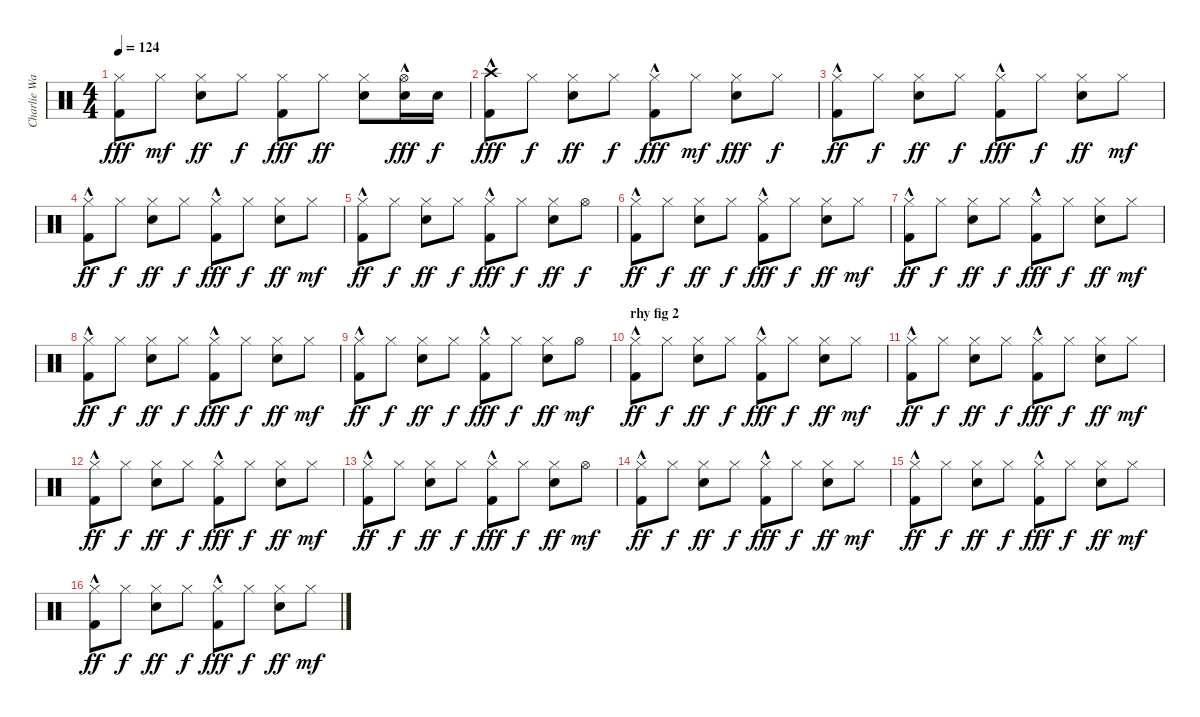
\track ("Charlie Watts" "Charlie Wa") {instrument percussion}
\staff {score}
\articulation defaults
\ts (4 4)
\tempo 124
\clef neutral
\ks c
("Kick (hit) 2" "Hi-Hat (closed)").8{dy fff} "Hi-Hat (closed)".8{dy mf} ("Snare (hit) 2" "Hi-Hat (closed)").8{dy ff} "Hi-Hat (closed)".8{dy f} ("Kick (hit) 2" "Hi-Hat (closed)").8{dy fff} "Hi-Hat (closed)".8{dy ff} ("Snare (hit) 2" "Hi-Hat (closed)").8 ("Hi-Hat (open)"{hac} "Snare (hit) 2").16{dy fff} "Snare (hit) 2".16{dy f} |
("Kick (hit) 2"{hac} "Crash high (hit)"{hac}).8{dy fff} "Hi-Hat (closed)".8{dy f} ("Snare (hit) 2" "Hi-Hat (closed)").8{dy ff} "Hi-Hat (closed)".8{dy f} ("Kick (hit) 2"{hac} "Hi-Hat (closed)").8{dy fff} "Hi-Hat (closed)".8{dy mf} ("Snare (hit) 2" "Hi-Hat (closed)").8{dy fff} "Hi-Hat (closed)".8{dy f} |
("Kick (hit) 2"{hac} "Hi-Hat (closed)").8{dy ff} "Hi-Hat (closed)".8{dy f} ("Snare (hit) 2" "Hi-Hat (closed)").8{dy ff} "Hi-Hat (closed)".8{dy f} ("Kick (hit) 2"{hac} "Hi-Hat (closed)").8{dy fff} "Hi-Hat (closed)".8{dy f} ("Snare (hit) 2" "Hi-Hat (closed)").8{dy ff} "Hi-Hat (closed)".8{dy mf} |
("Kick (hit) 2"{hac} "Hi-Hat (closed)").8{dy ff} "Hi-Hat (closed)".8{dy f} ("Snare (hit) 2" "Hi-Hat (closed)").8{dy ff} "Hi-Hat (closed)".8{dy f} ("Kick (hit) 2"{hac} "Hi-Hat (closed)").8{dy fff} "Hi-Hat (closed)".8{dy f} ("Snare (hit) 2" "Hi-Hat (closed)").8{dy ff} "Hi-Hat (closed)".8{dy mf} |
("Kick (hit) 2"{hac} "Hi-Hat (closed)").8{dy ff} "Hi-Hat (closed)".8{dy f} ("Snare (hit) 2" "Hi-Hat (closed)").8{dy ff} "Hi-Hat (closed)".8{dy f} ("Kick (hit) 2"{hac} "Hi-Hat (closed)").8{dy fff} "Hi-Hat (closed)".8{dy f} ("Snare (hit) 2" "Hi-Hat (closed)").8{dy ff} "Hi-Hat (open)".8{dy f} |
("Kick (hit) 2"{hac} "Hi-Hat (closed)").8{dy ff} "Hi-Hat (closed)".8{dy f} ("Snare (hit) 2" "Hi-Hat (closed)").8{dy ff} "Hi-Hat (closed)".8{dy f} ("Kick (hit) 2"{hac} "Hi-Hat (closed)").8{dy fff} "Hi-Hat (closed)".8{dy f} ("Snare (hit) 2" "Hi-Hat (closed)").8{dy ff} "Hi-Hat (closed)".8{dy mf} |
("Kick (hit) 2"{hac} "Hi-Hat (closed)").8{dy ff} "Hi-Hat (closed)".8{dy f} ("Snare (hit) 2" "Hi-Hat (closed)").8{dy ff} "Hi-Hat (closed)".8{dy f} ("Kick (hit) 2"{hac} "Hi-Hat (closed)").8{dy fff} "Hi-Hat (closed)".8{dy f} ("Snare (hit) 2" "Hi-Hat (closed)").8{dy ff} "Hi-Hat (closed)".8{dy mf} |
("Kick (hit) 2"{hac} "Hi-Hat (closed)").8{dy ff} "Hi-Hat (closed)".8{dy f} ("Snare (hit) 2" "Hi-Hat (closed)").8{dy ff} "Hi-Hat (closed)".8{dy f} ("Kick (hit) 2"{hac} "Hi-Hat (closed)").8{dy fff} "Hi-Hat (closed)".8{dy f} ("Snare (hit) 2" "Hi-Hat (closed)").8{dy ff} "Hi-Hat (closed)".8{dy mf} |
("Kick (hit) 2"{hac} "Hi-Hat (closed)").8{dy ff} "Hi-Hat (closed)".8{dy f} ("Snare (hit) 2" "Hi-Hat (closed)").8{dy ff} "Hi-Hat (closed)".8{dy f} ("Kick (hit) 2"{hac} "Hi-Hat (closed)").8{dy fff} "Hi-Hat (closed)".8{dy f} ("Snare (hit) 2" "Hi-Hat (closed)").8{dy ff} "Hi-Hat (open)".8{dy mf} |
\section ("" "rhy fig 2")
("Kick (hit) 2"{hac} "Hi-Hat (closed)").8{dy ff} "Hi-Hat (closed)".8{dy f} ("Snare (hit) 2" "Hi-Hat (closed)").8{dy ff} "Hi-Hat (closed)".8{dy f} ("Kick (hit) 2"{hac} "Hi-Hat (closed)").8{dy fff} "Hi-Hat (closed)".8{dy f} ("Snare (hit) 2" "Hi-Hat (closed)").8{dy ff} "Hi-Hat (closed)".8{dy mf} |
("Kick (hit) 2"{hac} "Hi-Hat (closed)").8{dy ff} "Hi-Hat (closed)".8{dy f} ("Snare (hit) 2" "Hi-Hat (closed)").8{dy ff} "Hi-Hat (closed)".8{dy f} ("Kick (hit) 2"{hac} "Hi-Hat (closed)").8{dy fff} "Hi-Hat (closed)".8{dy f} ("Snare (hit) 2" "Hi-Hat (closed)").8{dy ff} "Hi-Hat (closed)".8{dy mf} |
("Kick (hit) 2"{hac} "Hi-Hat (closed)").8{dy ff} "Hi-Hat (closed)".8{dy f} ("Snare (hit) 2" "Hi-Hat (closed)").8{dy ff} "Hi-Hat (closed)".8{dy f} ("Kick (hit) 2"{hac} "Hi-Hat (closed)").8{dy fff} "Hi-Hat (closed)".8{dy f} ("Snare (hit) 2" "Hi-Hat (closed)").8{dy ff} "Hi-Hat (closed)".8{dy mf} |
("Kick (hit) 2"{hac} "Hi-Hat (closed)").8{dy ff} "Hi-Hat (closed)".8{dy f} ("Snare (hit) 2" "Hi-Hat (closed)").8{dy ff} "Hi-Hat (closed)".8{dy f} ("Kick (hit) 2"{hac} "Hi-Hat (closed)").8{dy fff} "Hi-Hat (closed)".8{dy f} ("Snare (hit) 2" "Hi-Hat (closed)").8{dy ff} "Hi-Hat (open)".8{dy mf} |
("Kick (hit) 2"{hac} "Hi-Hat (closed)").8{dy ff} "Hi-Hat (closed)".8{dy f} ("Snare (hit) 2" "Hi-Hat (closed)").8{dy ff} "Hi-Hat (closed)".8{dy f} ("Kick (hit) 2"{hac} "Hi-Hat (closed)").8{dy fff} "Hi-Hat (closed)".8{dy f} ("Snare (hit) 2" "Hi-Hat (closed)").8{dy ff} "Hi-Hat (closed)".8{dy mf} |
("Kick (hit) 2"{hac} "Hi-Hat (closed)").8{dy ff} "Hi-Hat (closed)".8{dy f} ("Snare (hit) 2" "Hi-Hat (closed)").8{dy ff} "Hi-Hat (closed)".8{dy f} ("Kick (hit) 2"{hac} "Hi-Hat (closed)").8{dy fff} "Hi-Hat (closed)".8{dy f} ("Snare (hit) 2" "Hi-Hat (closed)").8{dy ff} "Hi-Hat (closed)".8{dy mf} |
("Kick (hit) 2"{hac} "Hi-Hat (closed)").8{dy ff} "Hi-Hat (closed)".8{dy f} ("Snare (hit) 2" "Hi-Hat (closed)").8{dy ff} "Hi-Hat (closed)".8{dy f} ("Kick (hit) 2"{hac} "Hi-Hat (closed)").8{dy fff} "Hi-Hat (closed)".8{dy f} ("Snare (hit) 2" "Hi-Hat (closed)").8{dy ff} "Hi-Hat (closed)".8{dy mf}
